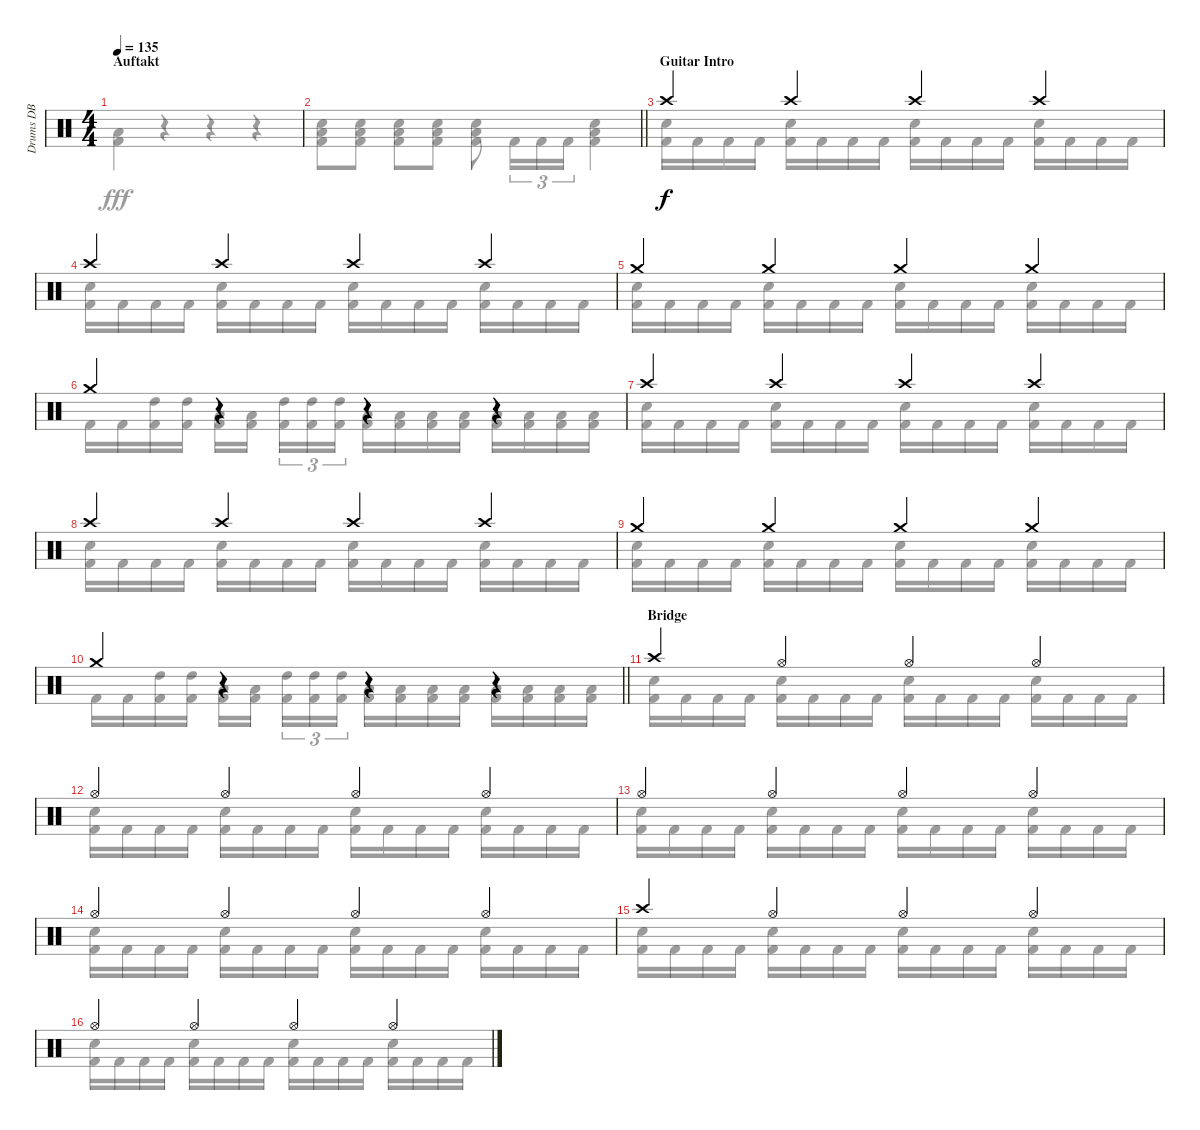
\track ("Drums DB" "Drums DB") {instrument percussion}
\staff {score}
\articulation defaults
\voice
\ts (4 4)
\section ("" "Auftakt")
\tempo 135
\clef neutral
\ks aminor
|
\barLineRight lightlight
|
\section ("" "Guitar Intro")
"Crash high (hit)".4 "Crash high (hit)".4 "Crash high (hit)".4 "Crash high (hit)".4 |
"Crash high (hit)".4 "Crash high (hit)".4 "Crash high (hit)".4 "Crash high (hit)".4 |
"Crash medium (hit)".4 "Crash medium (hit)".4 "Crash medium (hit)".4 "Crash medium (hit)".4 |
"Crash medium (hit)".4 r.4 r.4 r.4 |
"Crash high (hit)".4 "Crash high (hit)".4 "Crash high (hit)".4 "Crash high (hit)".4 |
"Crash high (hit)".4 "Crash high (hit)".4 "Crash high (hit)".4 "Crash high (hit)".4 |
"Crash medium (hit)".4 "Crash medium (hit)".4 "Crash medium (hit)".4 "Crash medium (hit)".4 |
\barLineRight lightlight "Crash medium (hit)".4
r.4 r.4 r.4 |
\section ("" "Bridge")
"Crash high (hit)".4 "Hi-Hat (open)".4 "Hi-Hat (open)".4 "Hi-Hat (open)".4 |
"Hi-Hat (open)".4 "Hi-Hat (open)".4 "Hi-Hat (open)".4 "Hi-Hat (open)".4 |
"Hi-Hat (open)".4 "Hi-Hat (open)".4 "Hi-Hat (open)".4 "Hi-Hat (open)".4 |
"Hi-Hat (open)".4 "Hi-Hat (open)".4 "Hi-Hat (open)".4 "Hi-Hat (open)".4 |
"Crash high (hit)".4 "Hi-Hat (open)".4 "Hi-Hat (open)".4 "Hi-Hat (open)".4 |
"Hi-Hat (open)".4 "Hi-Hat (open)".4 "Hi-Hat (open)".4 "Hi-Hat (open)".4
\voice
\clef neutral
\ottava regular
\simile none
\ks aminor
("Low Floor Tom (hit)" "Kick (hit) 2").4{dy fff} r.4{beam merge} r.4 r.4 |
\barLineRight lightlight
("Snare (hit) 2" "Low Floor Tom (hit)" "Kick (hit) 2").8 ("Snare (hit) 2" "Low Floor Tom (hit)" "Kick (hit) 2").8 ("Snare (hit) 2" "Low Floor Tom (hit)" "Kick (hit) 2").8 ("Snare (hit) 2" "Low Floor Tom (hit)" "Kick (hit) 2").8 ("Snare (hit) 2" "Low Floor Tom (hit)" "Kick (hit) 2").8 "Kick (hit) 2".16{tu (3 2)} "Kick (hit) 2".16{tu (3 2)} "Kick (hit) 2".16{tu (3 2)} ("Snare (hit) 2" "Low Floor Tom (hit)" "Kick (hit) 2").4 |
("Snare (hit) 2" "Kick (hit) 2").16 "Kick (hit) 2".16 "Kick (hit) 2".16 "Kick (hit) 2".16 ("Snare (hit) 2" "Kick (hit) 2").16 "Kick (hit) 2".16 "Kick (hit) 2".16 "Kick (hit) 2".16 ("Snare (hit) 2" "Kick (hit) 2").16 "Kick (hit) 2".16 "Kick (hit) 2".16 "Kick (hit) 2".16 ("Snare (hit) 2" "Kick (hit) 2").16 "Kick (hit) 2".16 "Kick (hit) 2".16 "Kick (hit) 2".16 |
("Snare (hit) 2" "Kick (hit) 2").16 "Kick (hit) 2".16 "Kick (hit) 2".16 "Kick (hit) 2".16 ("Snare (hit) 2" "Kick (hit) 2").16 "Kick (hit) 2".16 "Kick (hit) 2".16 "Kick (hit) 2".16 ("Snare (hit) 2" "Kick (hit) 2").16 "Kick (hit) 2".16 "Kick (hit) 2".16 "Kick (hit) 2".16 ("Snare (hit) 2" "Kick (hit) 2").16 "Kick (hit) 2".16 "Kick (hit) 2".16 "Kick (hit) 2".16 |
("Snare (hit) 2" "Kick (hit) 2").16 "Kick (hit) 2".16 "Kick (hit) 2".16 "Kick (hit) 2".16 ("Snare (hit) 2" "Kick (hit) 2").16 "Kick (hit) 2".16 "Kick (hit) 2".16 "Kick (hit) 2".16 ("Snare (hit) 2" "Kick (hit) 2").16 "Kick (hit) 2".16 "Kick (hit) 2".16 "Kick (hit) 2".16 ("Snare (hit) 2" "Kick (hit) 2").16 "Kick (hit) 2".16 "Kick (hit) 2".16 "Kick (hit) 2".16 |
"Kick (hit) 2".16 "Kick (hit) 2".16 ("High Tom (hit)" "Kick (hit) 2").16 ("High Tom (hit)" "Kick (hit) 2").16 ("Low Tom (hit)" "Kick (hit) 2").16 ("Low Tom (hit)" "Kick (hit) 2").16{beam splitsecondary} ("High Tom (hit)" "Kick (hit) 2").16{tu (3 2)} ("High Tom (hit)" "Kick (hit) 2").16{tu (3 2)} ("High Tom (hit)" "Kick (hit) 2").16{tu (3 2)} ("Low Tom (hit)" "Kick (hit) 2").16 ("Low Tom (hit)" "Kick (hit) 2").16 ("Low Floor Tom (hit)" "Kick (hit) 2").16 ("Low Floor Tom (hit)" "Kick (hit) 2").16 ("Low Tom (hit)" "Kick (hit) 2").16 ("Low Tom (hit)" "Kick (hit) 2").16 ("Low Floor Tom (hit)" "Kick (hit) 2").16 ("Low Floor Tom (hit)" "Kick (hit) 2").16 |
("Snare (hit) 2" "Kick (hit) 2").16 "Kick (hit) 2".16 "Kick (hit) 2".16 "Kick (hit) 2".16 ("Snare (hit) 2" "Kick (hit) 2").16 "Kick (hit) 2".16 "Kick (hit) 2".16 "Kick (hit) 2".16 ("Snare (hit) 2" "Kick (hit) 2").16 "Kick (hit) 2".16 "Kick (hit) 2".16 "Kick (hit) 2".16 ("Snare (hit) 2" "Kick (hit) 2").16 "Kick (hit) 2".16 "Kick (hit) 2".16 "Kick (hit) 2".16 |
("Snare (hit) 2" "Kick (hit) 2").16 "Kick (hit) 2".16 "Kick (hit) 2".16 "Kick (hit) 2".16 ("Snare (hit) 2" "Kick (hit) 2").16 "Kick (hit) 2".16 "Kick (hit) 2".16 "Kick (hit) 2".16 ("Snare (hit) 2" "Kick (hit) 2").16 "Kick (hit) 2".16 "Kick (hit) 2".16 "Kick (hit) 2".16 ("Snare (hit) 2" "Kick (hit) 2").16 "Kick (hit) 2".16 "Kick (hit) 2".16 "Kick (hit) 2".16 |
("Snare (hit) 2" "Kick (hit) 2").16 "Kick (hit) 2".16 "Kick (hit) 2".16 "Kick (hit) 2".16 ("Snare (hit) 2" "Kick (hit) 2").16 "Kick (hit) 2".16 "Kick (hit) 2".16 "Kick (hit) 2".16 ("Snare (hit) 2" "Kick (hit) 2").16 "Kick (hit) 2".16 "Kick (hit) 2".16 "Kick (hit) 2".16 ("Snare (hit) 2" "Kick (hit) 2").16 "Kick (hit) 2".16 "Kick (hit) 2".16 "Kick (hit) 2".16 |
\barLineRight lightlight "Kick (hit) 2".16 "Kick (hit) 2".16
("High Tom (hit)" "Kick (hit) 2").16 ("High Tom (hit)" "Kick (hit) 2").16 ("Low Tom (hit)" "Kick (hit) 2").16 ("Low Tom (hit)" "Kick (hit) 2").16{beam splitsecondary} ("High Tom (hit)" "Kick (hit) 2").16{tu (3 2)} ("High Tom (hit)" "Kick (hit) 2").16{tu (3 2)} ("High Tom (hit)" "Kick (hit) 2").16{tu (3 2)} ("Low Tom (hit)" "Kick (hit) 2").16 ("Low Tom (hit)" "Kick (hit) 2").16 ("Low Floor Tom (hit)" "Kick (hit) 2").16 ("Low Floor Tom (hit)" "Kick (hit) 2").16 ("Low Tom (hit)" "Kick (hit) 2").16 ("Low Tom (hit)" "Kick (hit) 2").16 ("Low Floor Tom (hit)" "Kick (hit) 2").16 ("Low Floor Tom (hit)" "Kick (hit) 2").16 |
("Snare (hit) 2" "Kick (hit) 2").16 "Kick (hit) 2".16 "Kick (hit) 2".16 "Kick (hit) 2".16 ("Snare (hit) 2" "Kick (hit) 2").16 "Kick (hit) 2".16 "Kick (hit) 2".16 "Kick (hit) 2".16 ("Snare (hit) 2" "Kick (hit) 2").16 "Kick (hit) 2".16 "Kick (hit) 2".16 "Kick (hit) 2".16 ("Snare (hit) 2" "Kick (hit) 2").16 "Kick (hit) 2".16 "Kick (hit) 2".16 "Kick (hit) 2".16 |
("Snare (hit) 2" "Kick (hit) 2").16 "Kick (hit) 2".16 "Kick (hit) 2".16 "Kick (hit) 2".16 ("Snare (hit) 2" "Kick (hit) 2").16 "Kick (hit) 2".16 "Kick (hit) 2".16 "Kick (hit) 2".16 ("Snare (hit) 2" "Kick (hit) 2").16 "Kick (hit) 2".16 "Kick (hit) 2".16 "Kick (hit) 2".16 ("Snare (hit) 2" "Kick (hit) 2").16 "Kick (hit) 2".16 "Kick (hit) 2".16 "Kick (hit) 2".16 |
("Snare (hit) 2" "Kick (hit) 2").16 "Kick (hit) 2".16 "Kick (hit) 2".16 "Kick (hit) 2".16 ("Snare (hit) 2" "Kick (hit) 2").16 "Kick (hit) 2".16 "Kick (hit) 2".16 "Kick (hit) 2".16 ("Snare (hit) 2" "Kick (hit) 2").16 "Kick (hit) 2".16 "Kick (hit) 2".16 "Kick (hit) 2".16 ("Snare (hit) 2" "Kick (hit) 2").16 "Kick (hit) 2".16 "Kick (hit) 2".16 "Kick (hit) 2".16 |
("Snare (hit) 2" "Kick (hit) 2").16 "Kick (hit) 2".16 "Kick (hit) 2".16 "Kick (hit) 2".16 ("Snare (hit) 2" "Kick (hit) 2").16 "Kick (hit) 2".16 "Kick (hit) 2".16 "Kick (hit) 2".16 ("Snare (hit) 2" "Kick (hit) 2").16 "Kick (hit) 2".16 "Kick (hit) 2".16 "Kick (hit) 2".16 ("Snare (hit) 2" "Kick (hit) 2").16 "Kick (hit) 2".16 "Kick (hit) 2".16 "Kick (hit) 2".16 |
("Snare (hit) 2" "Kick (hit) 2").16 "Kick (hit) 2".16 "Kick (hit) 2".16 "Kick (hit) 2".16 ("Snare (hit) 2" "Kick (hit) 2").16 "Kick (hit) 2".16 "Kick (hit) 2".16 "Kick (hit) 2".16 ("Snare (hit) 2" "Kick (hit) 2").16 "Kick (hit) 2".16 "Kick (hit) 2".16 "Kick (hit) 2".16 ("Snare (hit) 2" "Kick (hit) 2").16 "Kick (hit) 2".16 "Kick (hit) 2".16 "Kick (hit) 2".16 |
("Snare (hit) 2" "Kick (hit) 2").16 "Kick (hit) 2".16 "Kick (hit) 2".16 "Kick (hit) 2".16 ("Snare (hit) 2" "Kick (hit) 2").16 "Kick (hit) 2".16 "Kick (hit) 2".16 "Kick (hit) 2".16 ("Snare (hit) 2" "Kick (hit) 2").16 "Kick (hit) 2".16 "Kick (hit) 2".16 "Kick (hit) 2".16 ("Snare (hit) 2" "Kick (hit) 2").16 "Kick (hit) 2".16 "Kick (hit) 2".16 "Kick (hit) 2".16
